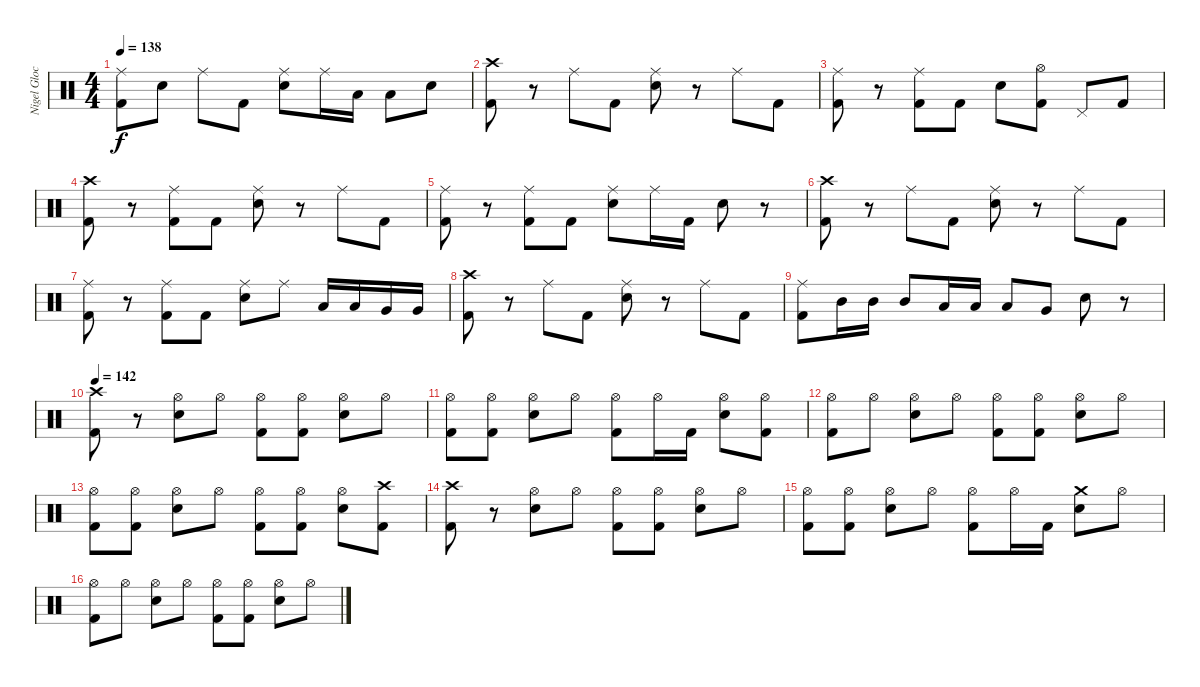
\track ("Nigel Glockler (Drums)" "Nigel Gloc") {instrument percussion}
\staff {score}
\articulation defaults
\ts (4 4)
\tempo 138
\clef neutral
\ks c
("Ride (middle)" "Kick (hit) 2").8{dy f} "Snare (hit) 2".8 "Ride (middle)".8 "Kick (hit) 2".8 ("Ride (middle)" "Snare (hit) 2").8 "Ride (middle)".16 "Low Tom (hit)".16 "Low Tom (hit)".8 "Snare (hit) 2".8 |
("Crash high (hit)" "Kick (hit) 2").8 r.8 "Ride (middle)".8 "Kick (hit) 2".8 ("Ride (middle)" "Snare (hit) 2").8 r.8 "Ride (middle)".8 "Kick (hit) 2".8 |
("Ride (middle)" "Kick (hit) 2").8 r.8 ("Ride (middle)" "Kick (hit) 2").8 "Kick (hit) 2".8 "Snare (hit) 2".8 ("Hi-Hat (open)" "Kick (hit) 2").8 "Pedal Hi-Hat (hit)".8 "Kick (hit) 2".8 |
("Crash high (hit)" "Kick (hit) 2").8 r.8 ("Ride (middle)" "Kick (hit) 2").8 "Kick (hit) 2".8 ("Ride (middle)" "Snare (hit) 2").8 r.8 "Ride (middle)".8 "Kick (hit) 2".8 |
("Ride (middle)" "Kick (hit) 2").8 r.8 ("Ride (middle)" "Kick (hit) 2").8 "Kick (hit) 2".8 ("Ride (middle)" "Snare (hit) 2").8 "Ride (middle)".16 "Kick (hit) 2".16 "Snare (hit) 2".8 r.8 |
("Crash high (hit)" "Kick (hit) 2").8 r.8 "Ride (middle)".8 "Kick (hit) 2".8 ("Ride (middle)" "Snare (hit) 2").8 r.8 "Ride (middle)".8 "Kick (hit) 2".8 |
("Ride (middle)" "Kick (hit) 2").8 r.8 ("Ride (middle)" "Kick (hit) 2").8 "Kick (hit) 2".8 ("Ride (middle)" "Snare (hit) 2").8 "Ride (middle)".8 "Low Tom (hit)".16 "Low Tom (hit)".16 "Very Low Tom (hit)".16 "Very Low Tom (hit)".16 |
("Crash high (hit)" "Kick (hit) 2").8 r.8 "Ride (middle)".8 "Kick (hit) 2".8 ("Ride (middle)" "Snare (hit) 2").8 r.8 "Ride (middle)".8 "Kick (hit) 2".8 |
("Ride (middle)" "Kick (hit) 2").8 "Mid Tom (hit)".16 "Mid Tom (hit)".16 "Mid Tom (hit)".8 "Low Tom (hit)".16 "Low Tom (hit)".16 "Low Tom (hit)".8 "Very Low Tom (hit)".8 "Snare (hit) 2".8 r.8 |
\tempo 142
("Crash high (hit)" "Kick (hit) 2").8 r.8 ("Hi-Hat (open)" "Snare (hit) 2").8 "Hi-Hat (open)".8 ("Hi-Hat (open)" "Kick (hit) 2").8 ("Hi-Hat (open)" "Kick (hit) 2").8 ("Hi-Hat (open)" "Snare (hit) 2").8 "Hi-Hat (open)".8 |
("Hi-Hat (open)" "Kick (hit) 2").8 ("Hi-Hat (open)" "Kick (hit) 2").8 ("Hi-Hat (open)" "Snare (hit) 2").8 "Hi-Hat (open)".8 ("Hi-Hat (open)" "Kick (hit) 2").8 "Hi-Hat (open)".16 "Kick (hit) 2".16 ("Hi-Hat (open)" "Snare (hit) 2").8 ("Hi-Hat (open)" "Kick (hit) 2").8 |
("Hi-Hat (open)" "Kick (hit) 2").8 "Hi-Hat (open)".8 ("Hi-Hat (open)" "Snare (hit) 2").8 "Hi-Hat (open)".8 ("Hi-Hat (open)" "Kick (hit) 2").8 ("Hi-Hat (open)" "Kick (hit) 2").8 ("Hi-Hat (open)" "Snare (hit) 2").8 "Hi-Hat (open)".8 |
("Hi-Hat (open)" "Kick (hit) 2").8 ("Hi-Hat (open)" "Kick (hit) 2").8 ("Hi-Hat (open)" "Snare (hit) 2").8 "Hi-Hat (open)".8 ("Hi-Hat (open)" "Kick (hit) 2").8 ("Hi-Hat (open)" "Kick (hit) 2").8 ("Hi-Hat (open)" "Snare (hit) 2").8 ("Crash high (hit)" "Kick (hit) 2").8 |
("Crash high (hit)" "Kick (hit) 2").8 r.8 ("Hi-Hat (open)" "Snare (hit) 2").8 "Hi-Hat (open)".8 ("Hi-Hat (open)" "Kick (hit) 2").8 ("Hi-Hat (open)" "Kick (hit) 2").8 ("Hi-Hat (open)" "Snare (hit) 2").8 "Hi-Hat (open)".8 |
("Hi-Hat (open)" "Kick (hit) 2").8 ("Hi-Hat (open)" "Kick (hit) 2").8 ("Hi-Hat (open)" "Snare (hit) 2").8 "Hi-Hat (open)".8 ("Hi-Hat (open)" "Kick (hit) 2").8 "Hi-Hat (open)".16 "Kick (hit) 2".16 ("Crash medium (hit)" "Snare (hit) 2").8 "Hi-Hat (open)".8 |
("Hi-Hat (open)" "Kick (hit) 2").8 "Hi-Hat (open)".8 ("Hi-Hat (open)" "Snare (hit) 2").8 "Hi-Hat (open)".8 ("Hi-Hat (open)" "Kick (hit) 2").8 ("Hi-Hat (open)" "Kick (hit) 2").8 ("Hi-Hat (open)" "Snare (hit) 2").8 "Hi-Hat (open)".8
